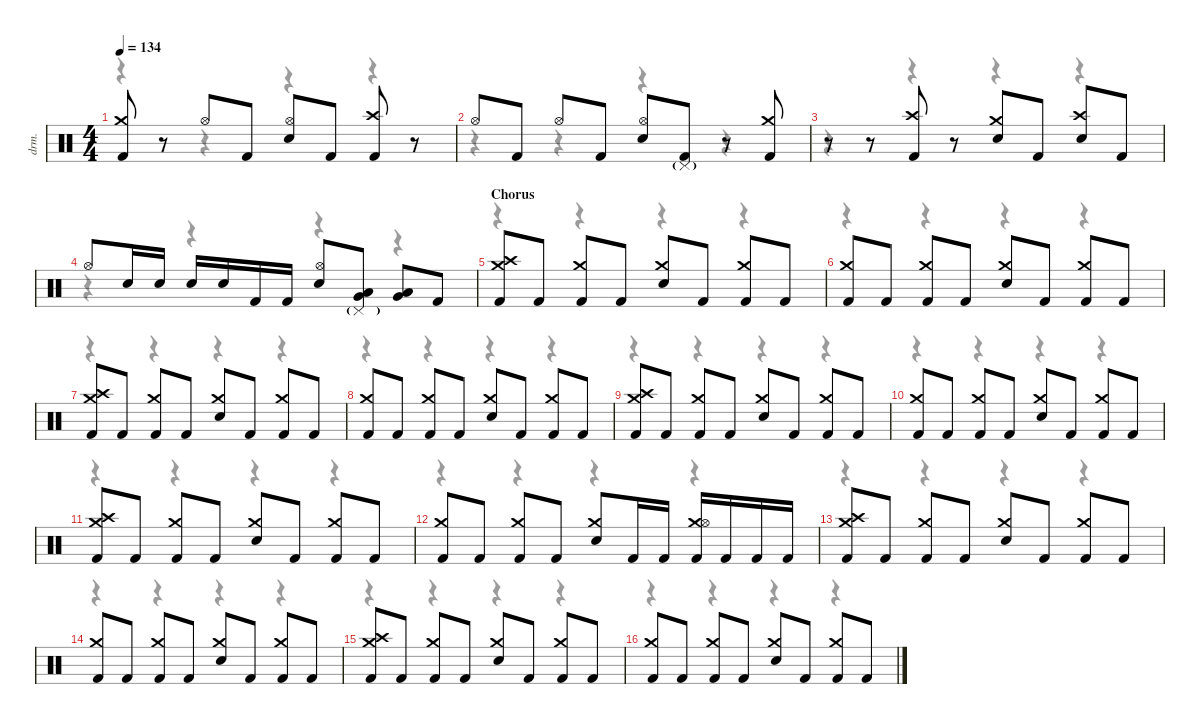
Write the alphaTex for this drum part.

\defaultSystemsLayout 4
\hideDynamics
\bracketExtendMode nobrackets
\track ("Alex Ballew" "drm.") {instrument percussion}
\staff {score}
\articulation defaults
\voice
\ts (4 4)
\tempo 134
\clef neutral
\ks c
("Crash medium (hit)" "Kick (hit) 2").8{dy f} r.8 "Hi-Hat (open)".8 "Kick (hit) 2".8 ("Hi-Hat (open)" "Snare (hit) 2").8 "Kick (hit) 2".8 ("Crash high (hit)" "Kick (hit) 2").8 r.8 |
"Hi-Hat (open)".8 "Kick (hit) 2".8{dy mp} "Hi-Hat (open)".8{dy f} "Kick (hit) 2".8{dy mp} ("Hi-Hat (open)" "Snare (hit) 2").8{dy f} ("Pedal Hi-Hat (hit)"{g} "Kick (hit) 2").8{dy mp} r.8 ("Crash medium (hit)" "Kick (hit) 2").8{dy f} |
r.8 r.8 ("Crash high (hit)" "Kick (hit) 2").8 r.8 ("Crash medium (hit)" "Snare (hit) 2").8 "Kick (hit) 2".8 ("Crash high (hit)" "Snare (hit) 2").8 "Kick (hit) 2".8 |
"Hi-Hat (open)".8 "Snare (hit) 2".16 "Snare (hit) 2".16 "Snare (hit) 2".16 "Snare (hit) 2".16 "Kick (hit) 2".16 "Kick (hit) 2".16 ("Hi-Hat (open)" "Snare (hit) 2").8 ("Pedal Hi-Hat (hit)"{g} "Low Tom (hit)" "Very Low Tom (hit)").8 ("Low Tom (hit)" "Very Low Tom (hit)").8 "Kick (hit) 2".8 |
\section ("" "Chorus")
("Crash medium (hit)" "Crash high (hit)" "Kick (hit) 2").8 "Kick (hit) 2".8 ("Crash medium (hit)" "Kick (hit) 2").8 "Kick (hit) 2".8 ("Crash medium (hit)" "Snare (hit) 2").8 "Kick (hit) 2".8 ("Crash medium (hit)" "Kick (hit) 2").8 "Kick (hit) 2".8 |
("Crash medium (hit)" "Kick (hit) 2").8 "Kick (hit) 2".8 ("Crash medium (hit)" "Kick (hit) 2").8 "Kick (hit) 2".8 ("Crash medium (hit)" "Snare (hit) 2").8 "Kick (hit) 2".8 ("Crash medium (hit)" "Kick (hit) 2").8 "Kick (hit) 2".8 |
("Crash medium (hit)" "Crash high (hit)" "Kick (hit) 2").8 "Kick (hit) 2".8 ("Crash medium (hit)" "Kick (hit) 2").8 "Kick (hit) 2".8 ("Crash medium (hit)" "Snare (hit) 2").8 "Kick (hit) 2".8 ("Crash medium (hit)" "Kick (hit) 2").8 "Kick (hit) 2".8 |
("Crash medium (hit)" "Kick (hit) 2").8 "Kick (hit) 2".8 ("Crash medium (hit)" "Kick (hit) 2").8 "Kick (hit) 2".8 ("Crash medium (hit)" "Snare (hit) 2").8 "Kick (hit) 2".8 ("Crash medium (hit)" "Kick (hit) 2").8 "Kick (hit) 2".8 |
("Crash medium (hit)" "Crash high (hit)" "Kick (hit) 2").8 "Kick (hit) 2".8 ("Crash medium (hit)" "Kick (hit) 2").8 "Kick (hit) 2".8 ("Crash medium (hit)" "Snare (hit) 2").8 "Kick (hit) 2".8 ("Crash medium (hit)" "Kick (hit) 2").8 "Kick (hit) 2".8 |
("Crash medium (hit)" "Kick (hit) 2").8 "Kick (hit) 2".8 ("Crash medium (hit)" "Kick (hit) 2").8 "Kick (hit) 2".8 ("Crash medium (hit)" "Snare (hit) 2").8 "Kick (hit) 2".8 ("Crash medium (hit)" "Kick (hit) 2").8 "Kick (hit) 2".8 |
("Crash medium (hit)" "Crash high (hit)" "Kick (hit) 2").8 "Kick (hit) 2".8 ("Crash medium (hit)" "Kick (hit) 2").8 "Kick (hit) 2".8 ("Crash medium (hit)" "Snare (hit) 2").8 "Kick (hit) 2".8 ("Crash medium (hit)" "Kick (hit) 2").8 "Kick (hit) 2".8 |
("Crash medium (hit)" "Kick (hit) 2").8 "Kick (hit) 2".8 ("Crash medium (hit)" "Kick (hit) 2").8 "Kick (hit) 2".8 ("Crash medium (hit)" "Snare (hit) 2").8 "Kick (hit) 2".16 "Kick (hit) 2".16 ("Crash medium (hit)" "Hi-Hat (open)" "Kick (hit) 2").16 "Kick (hit) 2".16 "Kick (hit) 2".16 "Kick (hit) 2".16 |
("Crash medium (hit)" "Crash high (hit)" "Kick (hit) 2").8 "Kick (hit) 2".8 ("Crash medium (hit)" "Kick (hit) 2").8 "Kick (hit) 2".8 ("Crash medium (hit)" "Snare (hit) 2").8 "Kick (hit) 2".8 ("Crash medium (hit)" "Kick (hit) 2").8 "Kick (hit) 2".8 |
("Crash medium (hit)" "Kick (hit) 2").8 "Kick (hit) 2".8 ("Crash medium (hit)" "Kick (hit) 2").8 "Kick (hit) 2".8 ("Crash medium (hit)" "Snare (hit) 2").8 "Kick (hit) 2".8 ("Crash medium (hit)" "Kick (hit) 2").8 "Kick (hit) 2".8 |
("Crash medium (hit)" "Crash high (hit)" "Kick (hit) 2").8 "Kick (hit) 2".8 ("Crash medium (hit)" "Kick (hit) 2").8 "Kick (hit) 2".8 ("Crash medium (hit)" "Snare (hit) 2").8 "Kick (hit) 2".8 ("Crash medium (hit)" "Kick (hit) 2").8 "Kick (hit) 2".8 |
("Crash medium (hit)" "Kick (hit) 2").8 "Kick (hit) 2".8 ("Crash medium (hit)" "Kick (hit) 2").8 "Kick (hit) 2".8 ("Crash medium (hit)" "Snare (hit) 2").8 "Kick (hit) 2".8 ("Crash medium (hit)" "Kick (hit) 2").8 "Kick (hit) 2".8
\voice
\clef neutral
\ottava regular
\simile none
\ks c
r.4{dy mf} r.4 r.4 r.4 |
r.4 r.4 r.4 r.4 |
r.4 r.4 r.4 r.4 |
r.4 r.4 r.4 r.4 |
r.4 r.4 r.4 r.4 |
r.4 r.4 r.4 r.4 |
r.4 r.4 r.4 r.4 |
r.4 r.4 r.4 r.4 |
r.4 r.4 r.4 r.4 |
r.4 r.4 r.4 r.4 |
r.4 r.4 r.4 r.4 |
r.4 r.4 r.4 r.4 |
r.4 r.4 r.4 r.4 |
r.4 r.4 r.4 r.4 |
r.4 r.4 r.4 r.4 |
r.4 r.4 r.4 r.4
